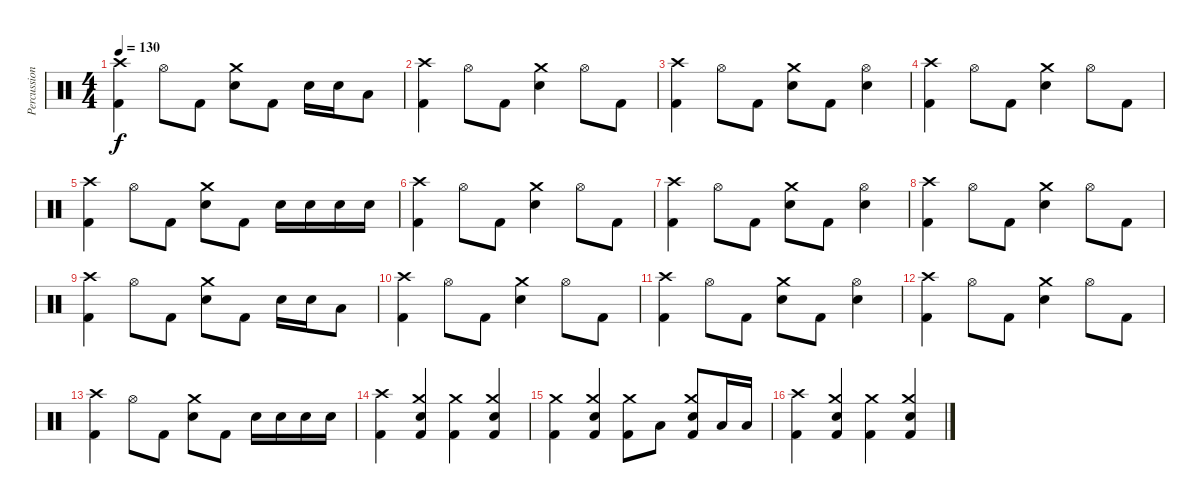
\track ("Percussion" "Percussion") {instrument percussion}
\staff {score}
\articulation defaults
\ts (4 4)
\tempo 130
\clef neutral
\ks c
("Crash high (hit)" "Kick (hit) 2").4{dy f} "Hi-Hat (open)".8 "Kick (hit) 2".8 ("Crash medium (hit)" "Electric Snare (hit)").8 "Kick (hit) 2".8 "Electric Snare (hit)".16 "Electric Snare (hit)".16 "Low Tom (hit)".8 |
("Crash high (hit)" "Kick (hit) 2").4 "Hi-Hat (open)".8 "Kick (hit) 2".8 ("Crash medium (hit)" "Electric Snare (hit)").4 "Hi-Hat (open)".8 "Kick (hit) 2".8 |
("Crash high (hit)" "Kick (hit) 2").4 "Hi-Hat (open)".8 "Kick (hit) 2".8 ("Crash medium (hit)" "Electric Snare (hit)").8 "Kick (hit) 2".8 ("Hi-Hat (open)" "Electric Snare (hit)").4 |
("Crash high (hit)" "Kick (hit) 2").4 "Hi-Hat (open)".8 "Kick (hit) 2".8 ("Crash medium (hit)" "Electric Snare (hit)").4 "Hi-Hat (open)".8 "Kick (hit) 2".8 |
("Crash high (hit)" "Kick (hit) 2").4 "Hi-Hat (open)".8 "Kick (hit) 2".8 ("Crash medium (hit)" "Electric Snare (hit)").8 "Kick (hit) 2".8 "Electric Snare (hit)".16 "Electric Snare (hit)".16 "Electric Snare (hit)".16 "Electric Snare (hit)".16 |
("Crash high (hit)" "Kick (hit) 2").4 "Hi-Hat (open)".8 "Kick (hit) 2".8 ("Crash medium (hit)" "Electric Snare (hit)").4 "Hi-Hat (open)".8 "Kick (hit) 2".8 |
("Crash high (hit)" "Kick (hit) 2").4 "Hi-Hat (open)".8 "Kick (hit) 2".8 ("Crash medium (hit)" "Electric Snare (hit)").8 "Kick (hit) 2".8 ("Hi-Hat (open)" "Electric Snare (hit)").4 |
("Crash high (hit)" "Kick (hit) 2").4 "Hi-Hat (open)".8 "Kick (hit) 2".8 ("Crash medium (hit)" "Electric Snare (hit)").4 "Hi-Hat (open)".8 "Kick (hit) 2".8 |
("Crash high (hit)" "Kick (hit) 2").4 "Hi-Hat (open)".8 "Kick (hit) 2".8 ("Crash medium (hit)" "Electric Snare (hit)").8 "Kick (hit) 2".8 "Electric Snare (hit)".16 "Electric Snare (hit)".16 "Low Tom (hit)".8 |
("Crash high (hit)" "Kick (hit) 2").4 "Hi-Hat (open)".8 "Kick (hit) 2".8 ("Crash medium (hit)" "Electric Snare (hit)").4 "Hi-Hat (open)".8 "Kick (hit) 2".8 |
("Crash high (hit)" "Kick (hit) 2").4 "Hi-Hat (open)".8 "Kick (hit) 2".8 ("Crash medium (hit)" "Electric Snare (hit)").8 "Kick (hit) 2".8 ("Hi-Hat (open)" "Electric Snare (hit)").4 |
("Crash high (hit)" "Kick (hit) 2").4 "Hi-Hat (open)".8 "Kick (hit) 2".8 ("Crash medium (hit)" "Electric Snare (hit)").4 "Hi-Hat (open)".8 "Kick (hit) 2".8 |
("Crash high (hit)" "Kick (hit) 2").4 "Hi-Hat (open)".8 "Kick (hit) 2".8 ("Crash medium (hit)" "Electric Snare (hit)").8 "Kick (hit) 2".8 "Electric Snare (hit)".16 "Electric Snare (hit)".16 "Electric Snare (hit)".16 "Electric Snare (hit)".16 |
("Crash high (hit)" "Kick (hit) 2").4 ("Crash medium (hit)" "Electric Snare (hit)" "Kick (hit) 2").4 ("Crash medium (hit)" "Kick (hit) 2").4 ("Crash medium (hit)" "Electric Snare (hit)" "Kick (hit) 2").4 |
("Crash medium (hit)" "Kick (hit) 2").4 ("Crash medium (hit)" "Electric Snare (hit)" "Kick (hit) 2").4 ("Crash medium (hit)" "Kick (hit) 2").8 "Low Tom (hit)".8 ("Crash medium (hit)" "Electric Snare (hit)" "Kick (hit) 2").8 "Low Tom (hit)".16 "Low Tom (hit)".16 |
("Crash high (hit)" "Kick (hit) 2").4 ("Crash medium (hit)" "Electric Snare (hit)" "Kick (hit) 2").4 ("Crash medium (hit)" "Kick (hit) 2").4 ("Crash medium (hit)" "Electric Snare (hit)" "Kick (hit) 2").4
